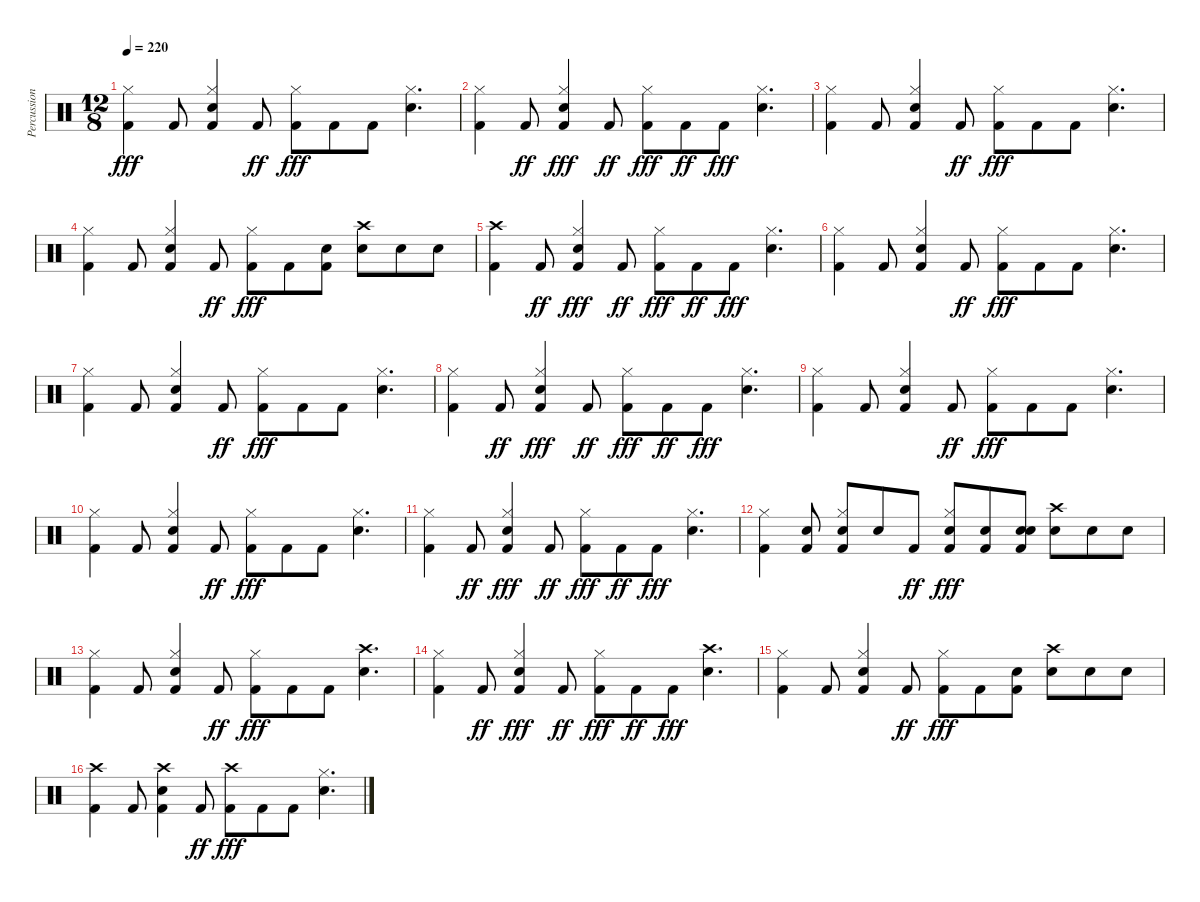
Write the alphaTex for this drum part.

\track ("Percussion" "Percussion") {instrument percussion}
\staff {score}
\articulation defaults
\ts (12 8)
\tempo 220
\clef neutral
\ks c
("Kick (hit) 2" "Hi-Hat (closed)").4{dy fff} "Kick (hit) 2".8 ("Kick (hit) 2" "Snare (hit) 2" "Hi-Hat (closed)").4 "Kick (hit) 2".8{dy ff} ("Kick (hit) 2" "Hi-Hat (closed)").8{dy fff} "Kick (hit) 2".8 "Kick (hit) 2".8 ("Snare (hit) 2" "Hi-Hat (closed)").4{d} |
("Kick (hit) 2" "Hi-Hat (closed)").4 "Kick (hit) 2".8{dy ff} ("Kick (hit) 2" "Snare (hit) 2" "Hi-Hat (closed)").4{dy fff} "Kick (hit) 2".8{dy ff} ("Kick (hit) 2" "Hi-Hat (closed)").8{dy fff} "Kick (hit) 2".8{dy ff} "Kick (hit) 2".8{dy fff} ("Snare (hit) 2" "Hi-Hat (closed)").4{d} |
("Kick (hit) 2" "Hi-Hat (closed)").4 "Kick (hit) 2".8 ("Kick (hit) 2" "Snare (hit) 2" "Hi-Hat (closed)").4 "Kick (hit) 2".8{dy ff} ("Kick (hit) 2" "Hi-Hat (closed)").8{dy fff} "Kick (hit) 2".8 "Kick (hit) 2".8 ("Snare (hit) 2" "Hi-Hat (closed)").4{d} |
("Kick (hit) 2" "Hi-Hat (closed)").4 "Kick (hit) 2".8 ("Kick (hit) 2" "Snare (hit) 2" "Hi-Hat (closed)").4 "Kick (hit) 2".8{dy ff} ("Kick (hit) 2" "Hi-Hat (closed)").8{dy fff} "Kick (hit) 2".8 ("Kick (hit) 2" "Snare (hit) 2").8 ("Snare (hit) 2" "Crash high (hit)").8 "Snare (hit) 2".8 "Snare (hit) 2".8 |
("Kick (hit) 2" "Crash high (hit)").4 "Kick (hit) 2".8{dy ff} ("Kick (hit) 2" "Snare (hit) 2" "Hi-Hat (closed)").4{dy fff} "Kick (hit) 2".8{dy ff} ("Kick (hit) 2" "Hi-Hat (closed)").8{dy fff} "Kick (hit) 2".8{dy ff} "Kick (hit) 2".8{dy fff} ("Snare (hit) 2" "Hi-Hat (closed)").4{d} |
("Kick (hit) 2" "Hi-Hat (closed)").4 "Kick (hit) 2".8 ("Kick (hit) 2" "Snare (hit) 2" "Hi-Hat (closed)").4 "Kick (hit) 2".8{dy ff} ("Kick (hit) 2" "Hi-Hat (closed)").8{dy fff} "Kick (hit) 2".8 "Kick (hit) 2".8 ("Snare (hit) 2" "Hi-Hat (closed)").4{d} |
("Kick (hit) 2" "Hi-Hat (closed)").4 "Kick (hit) 2".8 ("Kick (hit) 2" "Snare (hit) 2" "Hi-Hat (closed)").4 "Kick (hit) 2".8{dy ff} ("Kick (hit) 2" "Hi-Hat (closed)").8{dy fff} "Kick (hit) 2".8 "Kick (hit) 2".8 ("Snare (hit) 2" "Hi-Hat (closed)").4{d} |
("Kick (hit) 2" "Hi-Hat (closed)").4 "Kick (hit) 2".8{dy ff} ("Kick (hit) 2" "Snare (hit) 2" "Hi-Hat (closed)").4{dy fff} "Kick (hit) 2".8{dy ff} ("Kick (hit) 2" "Hi-Hat (closed)").8{dy fff} "Kick (hit) 2".8{dy ff} "Kick (hit) 2".8{dy fff} ("Snare (hit) 2" "Hi-Hat (closed)").4{d} |
("Kick (hit) 2" "Hi-Hat (closed)").4 "Kick (hit) 2".8 ("Kick (hit) 2" "Snare (hit) 2" "Hi-Hat (closed)").4 "Kick (hit) 2".8{dy ff} ("Kick (hit) 2" "Hi-Hat (closed)").8{dy fff} "Kick (hit) 2".8 "Kick (hit) 2".8 ("Snare (hit) 2" "Hi-Hat (closed)").4{d} |
("Kick (hit) 2" "Hi-Hat (closed)").4 "Kick (hit) 2".8 ("Kick (hit) 2" "Snare (hit) 2" "Hi-Hat (closed)").4 "Kick (hit) 2".8{dy ff} ("Kick (hit) 2" "Hi-Hat (closed)").8{dy fff} "Kick (hit) 2".8 "Kick (hit) 2".8 ("Snare (hit) 2" "Hi-Hat (closed)").4{d} |
("Kick (hit) 2" "Hi-Hat (closed)").4 "Kick (hit) 2".8{dy ff} ("Kick (hit) 2" "Snare (hit) 2" "Hi-Hat (closed)").4{dy fff} "Kick (hit) 2".8{dy ff} ("Kick (hit) 2" "Hi-Hat (closed)").8{dy fff} "Kick (hit) 2".8{dy ff} "Kick (hit) 2".8{dy fff} ("Snare (hit) 2" "Hi-Hat (closed)").4{d} |
("Kick (hit) 2" "Hi-Hat (closed)").4 ("Kick (hit) 2" "Snare (hit) 2").8 ("Kick (hit) 2" "Snare (hit) 2" "Hi-Hat (closed)").8 "Snare (hit) 2".8 "Kick (hit) 2".8{dy ff} ("Kick (hit) 2" "Snare (hit) 2" "Hi-Hat (closed)").8{dy fff} ("Kick (hit) 2" "Snare (hit) 2").8 ("Kick (hit) 2" "Snare (hit) 2" "Snare (hit) 2").8 ("Snare (hit) 2" "Crash high (hit)").8 "Snare (hit) 2".8 "Snare (hit) 2".8 |
("Kick (hit) 2" "Hi-Hat (closed)").4 "Kick (hit) 2".8 ("Kick (hit) 2" "Snare (hit) 2" "Hi-Hat (closed)").4 "Kick (hit) 2".8{dy ff} ("Kick (hit) 2" "Hi-Hat (closed)").8{dy fff} "Kick (hit) 2".8 "Kick (hit) 2".8 ("Snare (hit) 2" "Crash high (hit)").4{d} |
("Kick (hit) 2" "Hi-Hat (closed)").4 "Kick (hit) 2".8{dy ff} ("Kick (hit) 2" "Snare (hit) 2" "Hi-Hat (closed)").4{dy fff} "Kick (hit) 2".8{dy ff} ("Kick (hit) 2" "Hi-Hat (closed)").8{dy fff} "Kick (hit) 2".8{dy ff} "Kick (hit) 2".8{dy fff} ("Snare (hit) 2" "Crash high (hit)").4{d} |
("Kick (hit) 2" "Hi-Hat (closed)").4 "Kick (hit) 2".8 ("Kick (hit) 2" "Snare (hit) 2" "Hi-Hat (closed)").4 "Kick (hit) 2".8{dy ff} ("Kick (hit) 2" "Hi-Hat (closed)").8{dy fff} "Kick (hit) 2".8 ("Kick (hit) 2" "Snare (hit) 2").8 ("Snare (hit) 2" "Crash high (hit)").8 "Snare (hit) 2".8 "Snare (hit) 2".8 |
("Kick (hit) 2" "Crash high (hit)").4 "Kick (hit) 2".8 ("Kick (hit) 2" "Snare (hit) 2" "Crash high (hit)").4 "Kick (hit) 2".8{dy ff} ("Kick (hit) 2" "Crash high (hit)").8{dy fff} "Kick (hit) 2".8 "Kick (hit) 2".8 ("Snare (hit) 2" "Hi-Hat (closed)").4{d}
